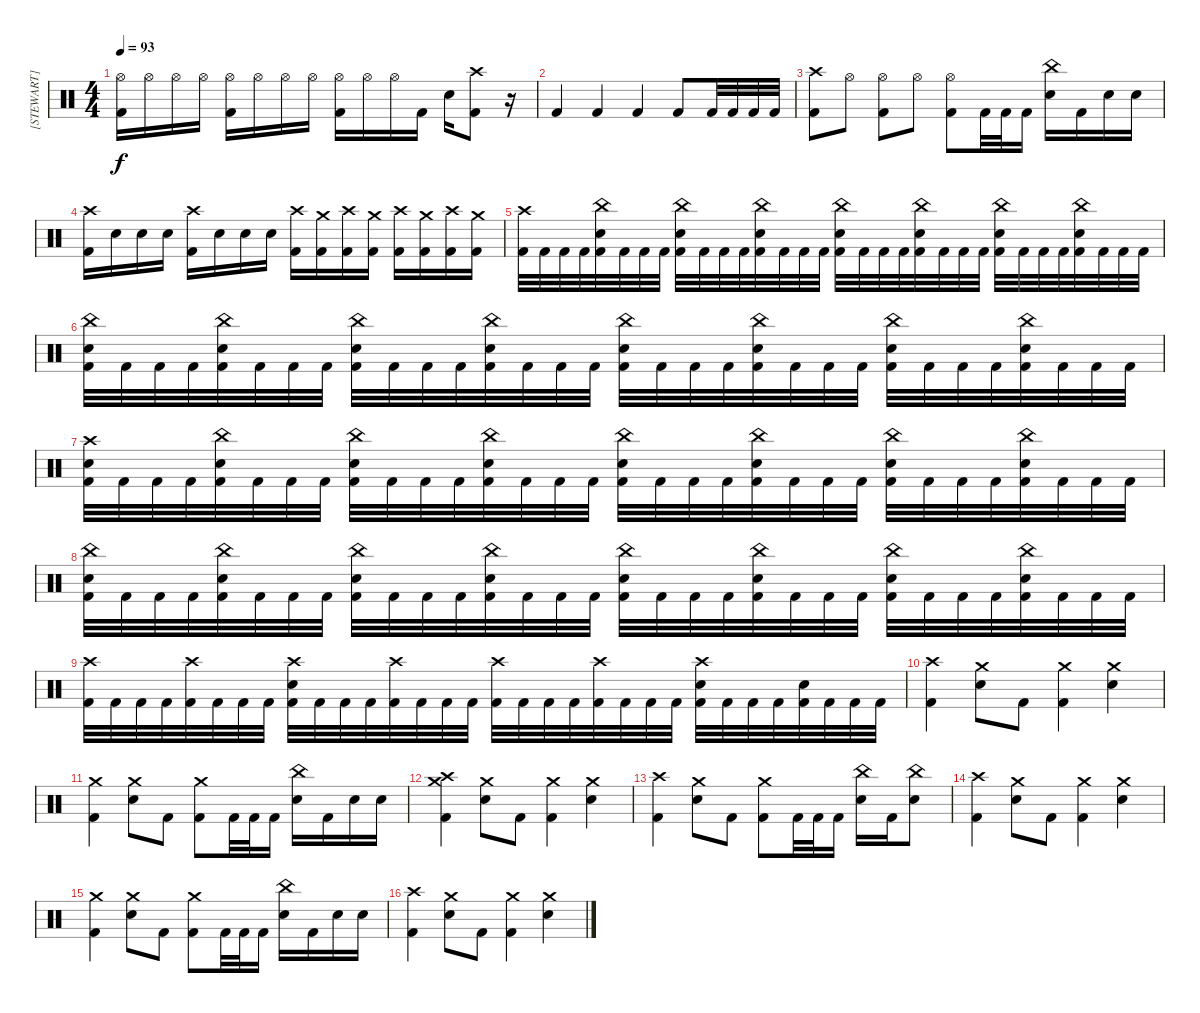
\track ("[STEWART]" "[STEWART]") {instrument percussion}
\staff
\articulation defaults
\ts (4 4)
\tempo 93
\clef neutral
\ks c
("Hi-Hat (open)" "Kick (hit) 2").16{dy f} "Hi-Hat (open)".16 "Hi-Hat (open)".16 "Hi-Hat (open)".16 ("Hi-Hat (open)" "Kick (hit) 2").16 "Hi-Hat (open)".16 "Hi-Hat (open)".16 "Hi-Hat (open)".16 ("Hi-Hat (open)" "Kick (hit) 2").16 "Hi-Hat (open)".16 "Hi-Hat (open)".16 "Kick (hit) 2".16 "Snare (hit) 2".16 ("Crash high (hit)" "Kick (hit) 2").8 r.16 |
"Kick (hit) 2".4 "Kick (hit) 2".4 "Kick (hit) 2".4 "Kick (hit) 2".8 "Kick (hit) 2".32 "Kick (hit) 2".32 "Kick (hit) 2".32 "Kick (hit) 2".32 |
("Crash high (hit)" "Kick (hit) 2").8 "Hi-Hat (open)".8 ("Hi-Hat (open)" "Kick (hit) 2").8 "Hi-Hat (open)".8 ("Hi-Hat (open)" "Kick (hit) 2").8 "Kick (hit) 2".32 "Kick (hit) 2".32 "Kick (hit) 2".16 ("China (hit)" "Snare (hit) 2").16 "Kick (hit) 2".16 "Snare (hit) 2".16 "Snare (hit) 2".16 |
("Crash high (hit)" "Kick (hit) 2").16 "Snare (hit) 2".16 "Snare (hit) 2".16 "Snare (hit) 2".16 ("Crash high (hit)" "Kick (hit) 2").16 "Snare (hit) 2".16 "Snare (hit) 2".16 "Snare (hit) 2".16 ("Crash high (hit)" "Kick (hit) 2").16 ("Crash medium (hit)" "Kick (hit) 2").16 ("Crash high (hit)" "Kick (hit) 2").16 ("Crash medium (hit)" "Kick (hit) 2").16 ("Crash high (hit)" "Kick (hit) 2").16 ("Crash medium (hit)" "Kick (hit) 2").16 ("Crash high (hit)" "Kick (hit) 2").16 ("Crash medium (hit)" "Kick (hit) 2").16 |
("Crash high (hit)" "Kick (hit) 2").32 "Kick (hit) 2".32 "Kick (hit) 2".32 "Kick (hit) 2".32 ("China (hit)" "Snare (hit) 2" "Kick (hit) 2").32 "Kick (hit) 2".32 "Kick (hit) 2".32 "Kick (hit) 2".32 ("China (hit)" "Snare (hit) 2" "Kick (hit) 2").32 "Kick (hit) 2".32 "Kick (hit) 2".32 "Kick (hit) 2".32 ("China (hit)" "Snare (hit) 2" "Kick (hit) 2").32 "Kick (hit) 2".32 "Kick (hit) 2".32 "Kick (hit) 2".32 ("China (hit)" "Snare (hit) 2" "Kick (hit) 2").32 "Kick (hit) 2".32 "Kick (hit) 2".32 "Kick (hit) 2".32 ("China (hit)" "Snare (hit) 2" "Kick (hit) 2").32 "Kick (hit) 2".32 "Kick (hit) 2".32 "Kick (hit) 2".32 ("China (hit)" "Snare (hit) 2" "Kick (hit) 2").32 "Kick (hit) 2".32 "Kick (hit) 2".32 "Kick (hit) 2".32 ("China (hit)" "Snare (hit) 2" "Kick (hit) 2").32 "Kick (hit) 2".32 "Kick (hit) 2".32 "Kick (hit) 2".32 |
("China (hit)" "Snare (hit) 2" "Kick (hit) 2").32 "Kick (hit) 2".32 "Kick (hit) 2".32 "Kick (hit) 2".32 ("China (hit)" "Snare (hit) 2" "Kick (hit) 2").32 "Kick (hit) 2".32 "Kick (hit) 2".32 "Kick (hit) 2".32 ("China (hit)" "Snare (hit) 2" "Kick (hit) 2").32 "Kick (hit) 2".32 "Kick (hit) 2".32 "Kick (hit) 2".32 ("China (hit)" "Snare (hit) 2" "Kick (hit) 2").32 "Kick (hit) 2".32 "Kick (hit) 2".32 "Kick (hit) 2".32 ("China (hit)" "Snare (hit) 2" "Kick (hit) 2").32 "Kick (hit) 2".32 "Kick (hit) 2".32 "Kick (hit) 2".32 ("China (hit)" "Snare (hit) 2" "Kick (hit) 2").32 "Kick (hit) 2".32 "Kick (hit) 2".32 "Kick (hit) 2".32 ("China (hit)" "Snare (hit) 2" "Kick (hit) 2").32 "Kick (hit) 2".32 "Kick (hit) 2".32 "Kick (hit) 2".32 ("China (hit)" "Snare (hit) 2" "Kick (hit) 2").32 "Kick (hit) 2".32 "Kick (hit) 2".32 "Kick (hit) 2".32 |
("Crash high (hit)" "Snare (hit) 2" "Kick (hit) 2").32 "Kick (hit) 2".32 "Kick (hit) 2".32 "Kick (hit) 2".32 ("China (hit)" "Snare (hit) 2" "Kick (hit) 2").32 "Kick (hit) 2".32 "Kick (hit) 2".32 "Kick (hit) 2".32 ("China (hit)" "Snare (hit) 2" "Kick (hit) 2").32 "Kick (hit) 2".32 "Kick (hit) 2".32 "Kick (hit) 2".32 ("China (hit)" "Snare (hit) 2" "Kick (hit) 2").32 "Kick (hit) 2".32 "Kick (hit) 2".32 "Kick (hit) 2".32 ("China (hit)" "Snare (hit) 2" "Kick (hit) 2").32 "Kick (hit) 2".32 "Kick (hit) 2".32 "Kick (hit) 2".32 ("China (hit)" "Snare (hit) 2" "Kick (hit) 2").32 "Kick (hit) 2".32 "Kick (hit) 2".32 "Kick (hit) 2".32 ("China (hit)" "Snare (hit) 2" "Kick (hit) 2").32 "Kick (hit) 2".32 "Kick (hit) 2".32 "Kick (hit) 2".32 ("China (hit)" "Snare (hit) 2" "Kick (hit) 2").32 "Kick (hit) 2".32 "Kick (hit) 2".32 "Kick (hit) 2".32 |
("China (hit)" "Snare (hit) 2" "Kick (hit) 2").32 "Kick (hit) 2".32 "Kick (hit) 2".32 "Kick (hit) 2".32 ("China (hit)" "Snare (hit) 2" "Kick (hit) 2").32 "Kick (hit) 2".32 "Kick (hit) 2".32 "Kick (hit) 2".32 ("China (hit)" "Snare (hit) 2" "Kick (hit) 2").32 "Kick (hit) 2".32 "Kick (hit) 2".32 "Kick (hit) 2".32 ("China (hit)" "Snare (hit) 2" "Kick (hit) 2").32 "Kick (hit) 2".32 "Kick (hit) 2".32 "Kick (hit) 2".32 ("China (hit)" "Snare (hit) 2" "Kick (hit) 2").32 "Kick (hit) 2".32 "Kick (hit) 2".32 "Kick (hit) 2".32 ("China (hit)" "Snare (hit) 2" "Kick (hit) 2").32 "Kick (hit) 2".32 "Kick (hit) 2".32 "Kick (hit) 2".32 ("China (hit)" "Snare (hit) 2" "Kick (hit) 2").32 "Kick (hit) 2".32 "Kick (hit) 2".32 "Kick (hit) 2".32 ("China (hit)" "Snare (hit) 2" "Kick (hit) 2").32 "Kick (hit) 2".32 "Kick (hit) 2".32 "Kick (hit) 2".32 |
("Crash high (hit)" "Kick (hit) 2").32 "Kick (hit) 2".32 "Kick (hit) 2".32 "Kick (hit) 2".32 ("Crash high (hit)" "Kick (hit) 2").32 "Kick (hit) 2".32 "Kick (hit) 2".32 "Kick (hit) 2".32 ("Crash high (hit)" "Snare (hit) 2" "Kick (hit) 2").32 "Kick (hit) 2".32 "Kick (hit) 2".32 "Kick (hit) 2".32 ("Crash high (hit)" "Kick (hit) 2").32 "Kick (hit) 2".32 "Kick (hit) 2".32 "Kick (hit) 2".32 ("Crash high (hit)" "Kick (hit) 2").32 "Kick (hit) 2".32 "Kick (hit) 2".32 "Kick (hit) 2".32 ("Crash high (hit)" "Kick (hit) 2").32 "Kick (hit) 2".32 "Kick (hit) 2".32 "Kick (hit) 2".32 ("Crash high (hit)" "Snare (hit) 2" "Kick (hit) 2").32 "Kick (hit) 2".32 "Kick (hit) 2".32 "Kick (hit) 2".32 ("Snare (hit) 2" "Kick (hit) 2").32 "Kick (hit) 2".32 "Kick (hit) 2".32 "Kick (hit) 2".32 |
("Crash high (hit)" "Kick (hit) 2").4 ("Crash medium (hit)" "Snare (hit) 2").8 "Kick (hit) 2".8 ("Crash medium (hit)" "Kick (hit) 2").4 ("Crash medium (hit)" "Snare (hit) 2").4 |
("Crash medium (hit)" "Kick (hit) 2").4 ("Crash medium (hit)" "Snare (hit) 2").8 "Kick (hit) 2".8 ("Crash medium (hit)" "Kick (hit) 2").8 "Kick (hit) 2".32 "Kick (hit) 2".32 "Kick (hit) 2".16 ("China (hit)" "Snare (hit) 2").16 "Kick (hit) 2".16 "Snare (hit) 2".16 "Snare (hit) 2".16 |
("Crash high (hit)" "Crash medium (hit)" "Kick (hit) 2").4 ("Crash medium (hit)" "Snare (hit) 2").8 "Kick (hit) 2".8 ("Crash medium (hit)" "Kick (hit) 2").4 ("Crash medium (hit)" "Snare (hit) 2").4 |
("Crash high (hit)" "Kick (hit) 2").4 ("Crash medium (hit)" "Snare (hit) 2").8 "Kick (hit) 2".8 ("Crash medium (hit)" "Kick (hit) 2").8 "Kick (hit) 2".32 "Kick (hit) 2".32 "Kick (hit) 2".16 ("China (hit)" "Snare (hit) 2").16 "Kick (hit) 2".16 ("China (hit)" "Snare (hit) 2").8 |
("Crash high (hit)" "Kick (hit) 2").4 ("Crash medium (hit)" "Snare (hit) 2").8 "Kick (hit) 2".8 ("Crash medium (hit)" "Kick (hit) 2").4 ("Crash medium (hit)" "Snare (hit) 2").4 |
("Crash medium (hit)" "Kick (hit) 2").4 ("Crash medium (hit)" "Snare (hit) 2").8 "Kick (hit) 2".8 ("Crash medium (hit)" "Kick (hit) 2").8 "Kick (hit) 2".32 "Kick (hit) 2".32 "Kick (hit) 2".16 ("China (hit)" "Snare (hit) 2").16 "Kick (hit) 2".16 "Snare (hit) 2".16 "Snare (hit) 2".16 |
("Crash high (hit)" "Kick (hit) 2").4 ("Crash medium (hit)" "Snare (hit) 2").8 "Kick (hit) 2".8 ("Crash medium (hit)" "Kick (hit) 2").4 ("Crash medium (hit)" "Snare (hit) 2").4
